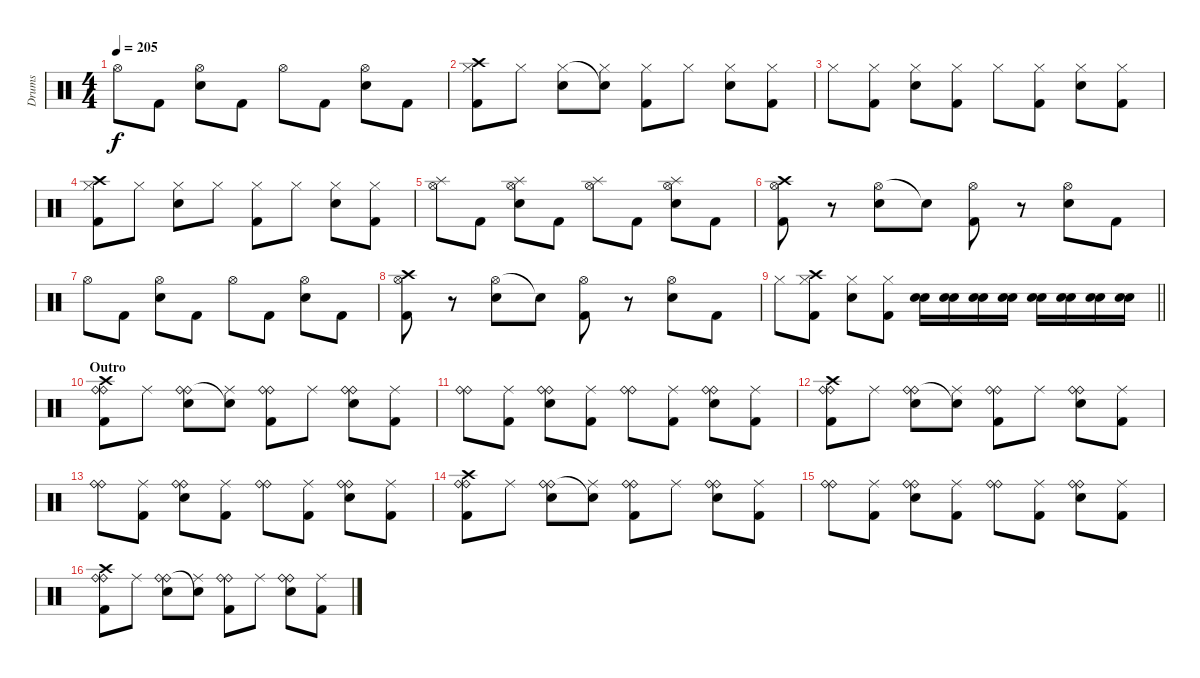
\track ("Drums" "Drums") {instrument percussion}
\staff {score}
\articulation defaults
\ts (4 4)
\tempo 205
\clef neutral
\ks c "Hi-Hat (open)".8{dy f} "Kick (hit) 2".8
("Hi-Hat (open)" "Electric Snare (hit)").8 "Kick (hit) 2".8 "Hi-Hat (open)".8 "Kick (hit) 2".8 ("Hi-Hat (open)" "Electric Snare (hit)").8 "Kick (hit) 2".8 |
("Crash high (hit)" "Hi-Hat (closed)" "Kick (hit) 2").8 "Hi-Hat (closed)".8 ("Hi-Hat (closed)" "Electric Snare (hit)").8 ("Snare (hit)"{t} "Hi-Hat (closed)").8 ("Hi-Hat (closed)" "Kick (hit) 2").8 "Hi-Hat (closed)".8 ("Hi-Hat (closed)" "Electric Snare (hit)").8 ("Hi-Hat (closed)" "Kick (hit) 2").8 |
"Hi-Hat (closed)".8 ("Hi-Hat (closed)" "Kick (hit) 2").8 ("Hi-Hat (closed)" "Electric Snare (hit)").8 ("Hi-Hat (closed)" "Kick (hit) 2").8 "Hi-Hat (closed)".8 ("Hi-Hat (closed)" "Kick (hit) 2").8 ("Hi-Hat (closed)" "Electric Snare (hit)").8 ("Hi-Hat (closed)" "Kick (hit) 2").8 |
("Crash high (hit)" "Hi-Hat (closed)" "Kick (hit) 2").8 "Hi-Hat (closed)".8 ("Hi-Hat (closed)" "Electric Snare (hit)").8 "Hi-Hat (closed)".8 ("Hi-Hat (closed)" "Kick (hit) 2").8 "Hi-Hat (closed)".8 ("Hi-Hat (closed)" "Electric Snare (hit)").8 ("Hi-Hat (closed)" "Kick (hit) 2").8 |
("Splash (hit)" "Hi-Hat (open)").8 "Kick (hit) 2".8 ("Splash (hit)" "Hi-Hat (open)" "Electric Snare (hit)").8 "Kick (hit) 2".8 ("Splash (hit)" "Hi-Hat (open)").8 "Kick (hit) 2".8 ("Splash (hit)" "Hi-Hat (open)" "Electric Snare (hit)").8 "Kick (hit) 2".8 |
("Crash high (hit)" "Hi-Hat (open)" "Kick (hit) 2").8 r.8 ("Hi-Hat (open)" "Electric Snare (hit)").8 "Snare (hit)"{t}.8 ("Hi-Hat (open)" "Kick (hit) 2").8 r.8 ("Hi-Hat (open)" "Electric Snare (hit)").8 "Kick (hit) 2".8 |
"Hi-Hat (open)".8 "Kick (hit) 2".8 ("Hi-Hat (open)" "Electric Snare (hit)").8 "Kick (hit) 2".8 "Hi-Hat (open)".8 "Kick (hit) 2".8 ("Hi-Hat (open)" "Electric Snare (hit)").8 "Kick (hit) 2".8 |
("Crash high (hit)" "Hi-Hat (open)" "Kick (hit) 2").8 r.8 ("Hi-Hat (open)" "Electric Snare (hit)").8 "Snare (hit)"{t}.8 ("Hi-Hat (open)" "Kick (hit) 2").8 r.8 ("Hi-Hat (open)" "Electric Snare (hit)").8 "Kick (hit) 2".8 |
\barLineRight lightlight "Hi-Hat (closed)".8
("Crash high (hit)" "Hi-Hat (closed)" "Kick (hit) 2").8 ("Hi-Hat (closed)" "Electric Snare (hit)").8 ("Hi-Hat (closed)" "Kick (hit) 2").8 ("Electric Snare (hit)" "Electric Snare (hit)").16 ("Electric Snare (hit)" "Electric Snare (hit)").16 ("Electric Snare (hit)" "Electric Snare (hit)").16 ("Electric Snare (hit)" "Electric Snare (hit)").16 ("Electric Snare (hit)" "Electric Snare (hit)").16 ("Electric Snare (hit)" "Electric Snare (hit)").16 ("Electric Snare (hit)" "Electric Snare (hit)").16 ("Electric Snare (hit)" "Electric Snare (hit)").16 |
\section ("" "Outro")
("Ride (bell)" "Crash high (hit)" "Ride (bell)" "Kick (hit) 2").8 "Ride (middle)".8 ("Ride (bell)" "Ride (bell)" "Electric Snare (hit)").8 ("Snare (hit)"{t} "Ride (middle)").8 ("Ride (bell)" "Ride (bell)" "Kick (hit) 2").8 "Ride (middle)".8 ("Ride (bell)" "Ride (bell)" "Electric Snare (hit)").8 ("Ride (middle)" "Kick (hit) 2").8 |
("Ride (bell)" "Ride (bell)").8 ("Ride (middle)" "Kick (hit) 2").8 ("Ride (bell)" "Ride (bell)" "Electric Snare (hit)").8 ("Ride (middle)" "Kick (hit) 2").8 ("Ride (bell)" "Ride (bell)").8 ("Ride (middle)" "Kick (hit) 2").8 ("Ride (bell)" "Ride (bell)" "Electric Snare (hit)").8 ("Ride (middle)" "Kick (hit) 2").8 |
("Ride (bell)" "Crash high (hit)" "Ride (bell)" "Kick (hit) 2").8 "Ride (middle)".8 ("Ride (bell)" "Ride (bell)" "Electric Snare (hit)").8 ("Snare (hit)"{t} "Ride (middle)").8 ("Ride (bell)" "Ride (bell)" "Kick (hit) 2").8 "Ride (middle)".8 ("Ride (bell)" "Ride (bell)" "Electric Snare (hit)").8 ("Ride (middle)" "Kick (hit) 2").8 |
("Ride (bell)" "Ride (bell)").8 ("Ride (middle)" "Kick (hit) 2").8 ("Ride (bell)" "Ride (bell)" "Electric Snare (hit)").8 ("Ride (middle)" "Kick (hit) 2").8 ("Ride (bell)" "Ride (bell)").8 ("Ride (middle)" "Kick (hit) 2").8 ("Ride (bell)" "Ride (bell)" "Electric Snare (hit)").8 ("Ride (middle)" "Kick (hit) 2").8 |
("Ride (bell)" "Crash high (hit)" "Ride (bell)" "Kick (hit) 2").8 "Ride (middle)".8 ("Ride (bell)" "Ride (bell)" "Electric Snare (hit)").8 ("Snare (hit)"{t} "Ride (middle)").8 ("Ride (bell)" "Ride (bell)" "Kick (hit) 2").8 "Ride (middle)".8 ("Ride (bell)" "Ride (bell)" "Electric Snare (hit)").8 ("Ride (middle)" "Kick (hit) 2").8 |
("Ride (bell)" "Ride (bell)").8 ("Ride (middle)" "Kick (hit) 2").8 ("Ride (bell)" "Ride (bell)" "Electric Snare (hit)").8 ("Ride (middle)" "Kick (hit) 2").8 ("Ride (bell)" "Ride (bell)").8 ("Ride (middle)" "Kick (hit) 2").8 ("Ride (bell)" "Ride (bell)" "Electric Snare (hit)").8 ("Ride (middle)" "Kick (hit) 2").8 |
("Ride (bell)" "Crash high (hit)" "Ride (bell)" "Kick (hit) 2").8 "Ride (middle)".8 ("Ride (bell)" "Ride (bell)" "Electric Snare (hit)").8 ("Snare (hit)"{t} "Ride (middle)").8 ("Ride (bell)" "Ride (bell)" "Kick (hit) 2").8 "Ride (middle)".8 ("Ride (bell)" "Ride (bell)" "Electric Snare (hit)").8 ("Ride (middle)" "Kick (hit) 2").8
